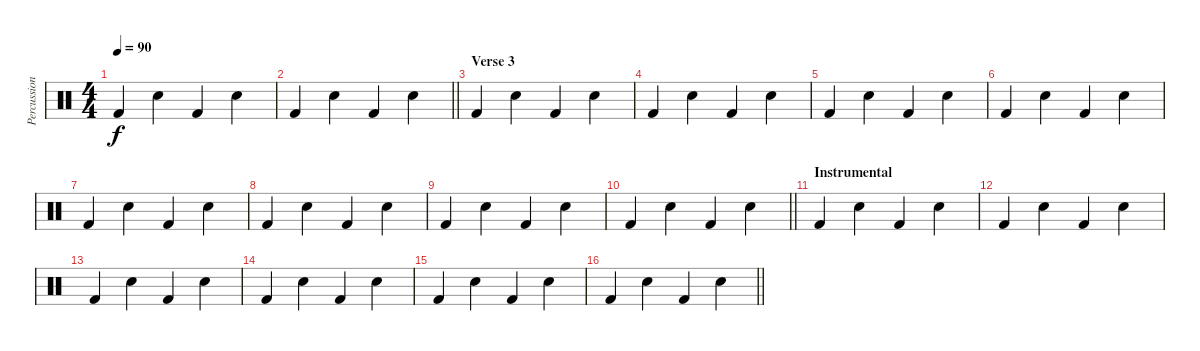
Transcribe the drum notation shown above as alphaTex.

\track ("Percussion" "Percussion") {instrument percussion}
\staff {score}
\articulation defaults
\ts (4 4)
\tempo 90
\clef neutral
\ks c "Kick (hit) 2".4{dy f} "Snare (hit) 2".4 "Kick (hit) 2".4 "Snare (hit) 2".4
|
\barLineRight lightlight "Kick (hit) 2".4 "Snare (hit) 2".4 "Kick (hit) 2".4 "Snare (hit) 2".4
|
\section ("" "Verse 3")
"Kick (hit) 2".4 "Snare (hit) 2".4 "Kick (hit) 2".4 "Snare (hit) 2".4 |
"Kick (hit) 2".4 "Snare (hit) 2".4 "Kick (hit) 2".4 "Snare (hit) 2".4 |
"Kick (hit) 2".4 "Snare (hit) 2".4 "Kick (hit) 2".4 "Snare (hit) 2".4 |
"Kick (hit) 2".4 "Snare (hit) 2".4 "Kick (hit) 2".4 "Snare (hit) 2".4 |
"Kick (hit) 2".4 "Snare (hit) 2".4 "Kick (hit) 2".4 "Snare (hit) 2".4 |
"Kick (hit) 2".4 "Snare (hit) 2".4 "Kick (hit) 2".4 "Snare (hit) 2".4 |
"Kick (hit) 2".4 "Snare (hit) 2".4 "Kick (hit) 2".4 "Snare (hit) 2".4 |
\barLineRight lightlight "Kick (hit) 2".4 "Snare (hit) 2".4 "Kick (hit) 2".4 "Snare (hit) 2".4
|
\section ("" "Instrumental")
"Kick (hit) 2".4 "Snare (hit) 2".4 "Kick (hit) 2".4 "Snare (hit) 2".4 |
"Kick (hit) 2".4 "Snare (hit) 2".4 "Kick (hit) 2".4 "Snare (hit) 2".4 |
"Kick (hit) 2".4 "Snare (hit) 2".4 "Kick (hit) 2".4 "Snare (hit) 2".4 |
"Kick (hit) 2".4 "Snare (hit) 2".4 "Kick (hit) 2".4 "Snare (hit) 2".4 |
"Kick (hit) 2".4 "Snare (hit) 2".4 "Kick (hit) 2".4 "Snare (hit) 2".4 |
\barLineRight lightlight "Kick (hit) 2".4 "Snare (hit) 2".4 "Kick (hit) 2".4 "Snare (hit) 2".4
